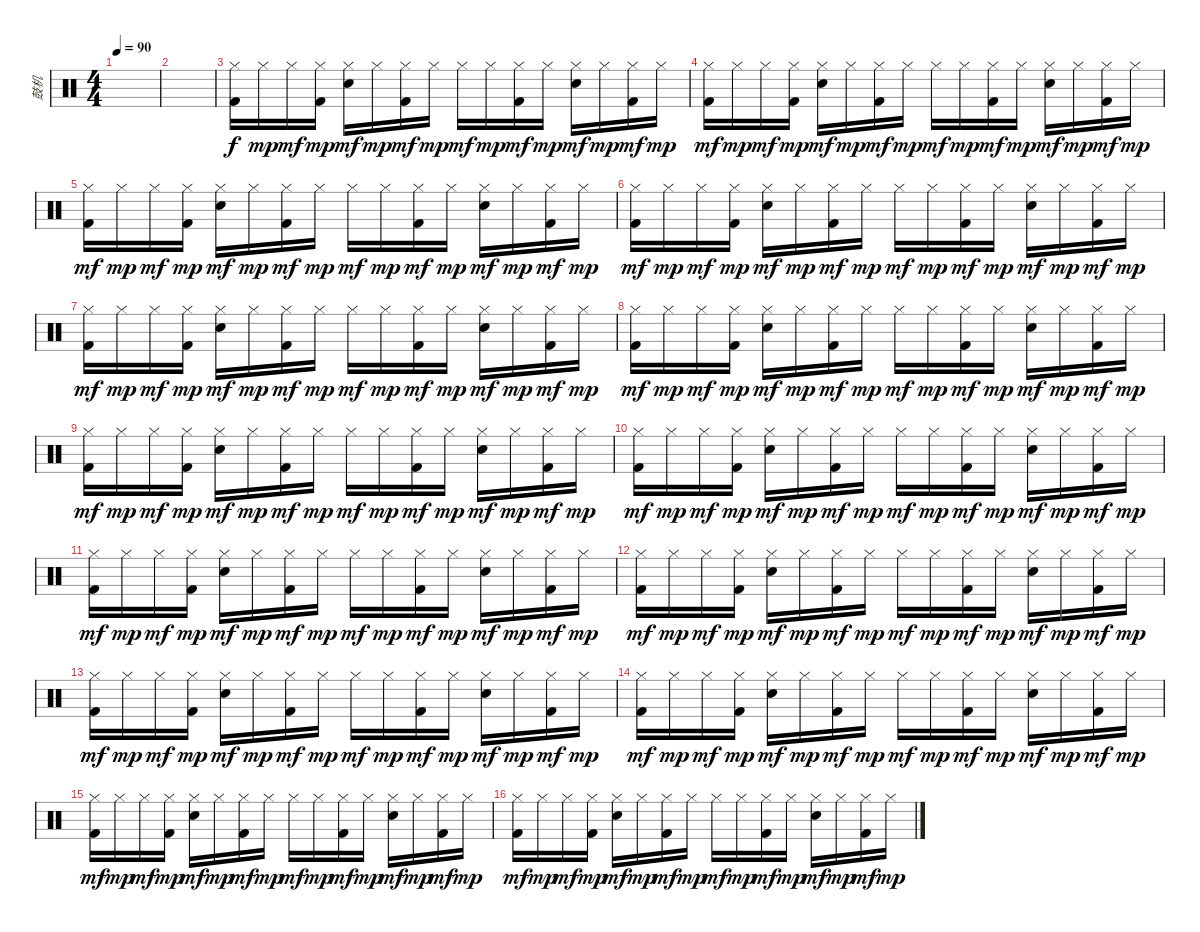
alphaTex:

\track ("鼓机" "鼓机") {instrument percussion}
\staff {score}
\articulation defaults
\ts (4 4)
\tempo 90
\clef neutral
\ks c
|
|
("Hi-Hat (closed)" "Kick (hit) 2").16 "Hi-Hat (closed)".16{dy mp} "Hi-Hat (closed)".16{dy mf} ("Hi-Hat (closed)" "Kick (hit) 2").16{dy mp} ("Hi-Hat (closed)" "Snare (hit) 2").16{dy mf} "Hi-Hat (closed)".16{dy mp} ("Hi-Hat (closed)" "Kick (hit) 2").16{dy mf} "Hi-Hat (closed)".16{dy mp} "Hi-Hat (closed)".16{dy mf} "Hi-Hat (closed)".16{dy mp} ("Hi-Hat (closed)" "Kick (hit) 2").16{dy mf} "Hi-Hat (closed)".16{dy mp} ("Hi-Hat (closed)" "Snare (hit) 2").16{dy mf} "Hi-Hat (closed)".16{dy mp} ("Hi-Hat (closed)" "Kick (hit) 2").16{dy mf} "Hi-Hat (closed)".16{dy mp} |
("Hi-Hat (closed)" "Kick (hit) 2").16{dy mf} "Hi-Hat (closed)".16{dy mp} "Hi-Hat (closed)".16{dy mf} ("Hi-Hat (closed)" "Kick (hit) 2").16{dy mp} ("Hi-Hat (closed)" "Snare (hit) 2").16{dy mf} "Hi-Hat (closed)".16{dy mp} ("Hi-Hat (closed)" "Kick (hit) 2").16{dy mf} "Hi-Hat (closed)".16{dy mp} "Hi-Hat (closed)".16{dy mf} "Hi-Hat (closed)".16{dy mp} ("Hi-Hat (closed)" "Kick (hit) 2").16{dy mf} "Hi-Hat (closed)".16{dy mp} ("Hi-Hat (closed)" "Snare (hit) 2").16{dy mf} "Hi-Hat (closed)".16{dy mp} ("Hi-Hat (closed)" "Kick (hit) 2").16{dy mf} "Hi-Hat (closed)".16{dy mp} |
("Hi-Hat (closed)" "Kick (hit) 2").16{dy mf} "Hi-Hat (closed)".16{dy mp} "Hi-Hat (closed)".16{dy mf} ("Hi-Hat (closed)" "Kick (hit) 2").16{dy mp} ("Hi-Hat (closed)" "Snare (hit) 2").16{dy mf} "Hi-Hat (closed)".16{dy mp} ("Hi-Hat (closed)" "Kick (hit) 2").16{dy mf} "Hi-Hat (closed)".16{dy mp} "Hi-Hat (closed)".16{dy mf} "Hi-Hat (closed)".16{dy mp} ("Hi-Hat (closed)" "Kick (hit) 2").16{dy mf} "Hi-Hat (closed)".16{dy mp} ("Hi-Hat (closed)" "Snare (hit) 2").16{dy mf} "Hi-Hat (closed)".16{dy mp} ("Hi-Hat (closed)" "Kick (hit) 2").16{dy mf} "Hi-Hat (closed)".16{dy mp} |
("Hi-Hat (closed)" "Kick (hit) 2").16{dy mf} "Hi-Hat (closed)".16{dy mp} "Hi-Hat (closed)".16{dy mf} ("Hi-Hat (closed)" "Kick (hit) 2").16{dy mp} ("Hi-Hat (closed)" "Snare (hit) 2").16{dy mf} "Hi-Hat (closed)".16{dy mp} ("Hi-Hat (closed)" "Kick (hit) 2").16{dy mf} "Hi-Hat (closed)".16{dy mp} "Hi-Hat (closed)".16{dy mf} "Hi-Hat (closed)".16{dy mp} ("Hi-Hat (closed)" "Kick (hit) 2").16{dy mf} "Hi-Hat (closed)".16{dy mp} ("Hi-Hat (closed)" "Snare (hit) 2").16{dy mf} "Hi-Hat (closed)".16{dy mp} ("Hi-Hat (closed)" "Kick (hit) 2").16{dy mf} "Hi-Hat (closed)".16{dy mp} |
("Hi-Hat (closed)" "Kick (hit) 2").16{dy mf} "Hi-Hat (closed)".16{dy mp} "Hi-Hat (closed)".16{dy mf} ("Hi-Hat (closed)" "Kick (hit) 2").16{dy mp} ("Hi-Hat (closed)" "Snare (hit) 2").16{dy mf} "Hi-Hat (closed)".16{dy mp} ("Hi-Hat (closed)" "Kick (hit) 2").16{dy mf} "Hi-Hat (closed)".16{dy mp} "Hi-Hat (closed)".16{dy mf} "Hi-Hat (closed)".16{dy mp} ("Hi-Hat (closed)" "Kick (hit) 2").16{dy mf} "Hi-Hat (closed)".16{dy mp} ("Hi-Hat (closed)" "Snare (hit) 2").16{dy mf} "Hi-Hat (closed)".16{dy mp} ("Hi-Hat (closed)" "Kick (hit) 2").16{dy mf} "Hi-Hat (closed)".16{dy mp} |
("Hi-Hat (closed)" "Kick (hit) 2").16{dy mf} "Hi-Hat (closed)".16{dy mp} "Hi-Hat (closed)".16{dy mf} ("Hi-Hat (closed)" "Kick (hit) 2").16{dy mp} ("Hi-Hat (closed)" "Snare (hit) 2").16{dy mf} "Hi-Hat (closed)".16{dy mp} ("Hi-Hat (closed)" "Kick (hit) 2").16{dy mf} "Hi-Hat (closed)".16{dy mp} "Hi-Hat (closed)".16{dy mf} "Hi-Hat (closed)".16{dy mp} ("Hi-Hat (closed)" "Kick (hit) 2").16{dy mf} "Hi-Hat (closed)".16{dy mp} ("Hi-Hat (closed)" "Snare (hit) 2").16{dy mf} "Hi-Hat (closed)".16{dy mp} ("Hi-Hat (closed)" "Kick (hit) 2").16{dy mf} "Hi-Hat (closed)".16{dy mp} |
("Hi-Hat (closed)" "Kick (hit) 2").16{dy mf} "Hi-Hat (closed)".16{dy mp} "Hi-Hat (closed)".16{dy mf} ("Hi-Hat (closed)" "Kick (hit) 2").16{dy mp} ("Hi-Hat (closed)" "Snare (hit) 2").16{dy mf} "Hi-Hat (closed)".16{dy mp} ("Hi-Hat (closed)" "Kick (hit) 2").16{dy mf} "Hi-Hat (closed)".16{dy mp} "Hi-Hat (closed)".16{dy mf} "Hi-Hat (closed)".16{dy mp} ("Hi-Hat (closed)" "Kick (hit) 2").16{dy mf} "Hi-Hat (closed)".16{dy mp} ("Hi-Hat (closed)" "Snare (hit) 2").16{dy mf} "Hi-Hat (closed)".16{dy mp} ("Hi-Hat (closed)" "Kick (hit) 2").16{dy mf} "Hi-Hat (closed)".16{dy mp} |
("Hi-Hat (closed)" "Kick (hit) 2").16{dy mf} "Hi-Hat (closed)".16{dy mp} "Hi-Hat (closed)".16{dy mf} ("Hi-Hat (closed)" "Kick (hit) 2").16{dy mp} ("Hi-Hat (closed)" "Snare (hit) 2").16{dy mf} "Hi-Hat (closed)".16{dy mp} ("Hi-Hat (closed)" "Kick (hit) 2").16{dy mf} "Hi-Hat (closed)".16{dy mp} "Hi-Hat (closed)".16{dy mf} "Hi-Hat (closed)".16{dy mp} ("Hi-Hat (closed)" "Kick (hit) 2").16{dy mf} "Hi-Hat (closed)".16{dy mp} ("Hi-Hat (closed)" "Snare (hit) 2").16{dy mf} "Hi-Hat (closed)".16{dy mp} ("Hi-Hat (closed)" "Kick (hit) 2").16{dy mf} "Hi-Hat (closed)".16{dy mp} |
("Hi-Hat (closed)" "Kick (hit) 2").16{dy mf} "Hi-Hat (closed)".16{dy mp} "Hi-Hat (closed)".16{dy mf} ("Hi-Hat (closed)" "Kick (hit) 2").16{dy mp} ("Hi-Hat (closed)" "Snare (hit) 2").16{dy mf} "Hi-Hat (closed)".16{dy mp} ("Hi-Hat (closed)" "Kick (hit) 2").16{dy mf} "Hi-Hat (closed)".16{dy mp} "Hi-Hat (closed)".16{dy mf} "Hi-Hat (closed)".16{dy mp} ("Hi-Hat (closed)" "Kick (hit) 2").16{dy mf} "Hi-Hat (closed)".16{dy mp} ("Hi-Hat (closed)" "Snare (hit) 2").16{dy mf} "Hi-Hat (closed)".16{dy mp} ("Hi-Hat (closed)" "Kick (hit) 2").16{dy mf} "Hi-Hat (closed)".16{dy mp} |
("Hi-Hat (closed)" "Kick (hit) 2").16{dy mf} "Hi-Hat (closed)".16{dy mp} "Hi-Hat (closed)".16{dy mf} ("Hi-Hat (closed)" "Kick (hit) 2").16{dy mp} ("Hi-Hat (closed)" "Snare (hit) 2").16{dy mf} "Hi-Hat (closed)".16{dy mp} ("Hi-Hat (closed)" "Kick (hit) 2").16{dy mf} "Hi-Hat (closed)".16{dy mp} "Hi-Hat (closed)".16{dy mf} "Hi-Hat (closed)".16{dy mp} ("Hi-Hat (closed)" "Kick (hit) 2").16{dy mf} "Hi-Hat (closed)".16{dy mp} ("Hi-Hat (closed)" "Snare (hit) 2").16{dy mf} "Hi-Hat (closed)".16{dy mp} ("Hi-Hat (closed)" "Kick (hit) 2").16{dy mf} "Hi-Hat (closed)".16{dy mp} |
("Hi-Hat (closed)" "Kick (hit) 2").16{dy mf} "Hi-Hat (closed)".16{dy mp} "Hi-Hat (closed)".16{dy mf} ("Hi-Hat (closed)" "Kick (hit) 2").16{dy mp} ("Hi-Hat (closed)" "Snare (hit) 2").16{dy mf} "Hi-Hat (closed)".16{dy mp} ("Hi-Hat (closed)" "Kick (hit) 2").16{dy mf} "Hi-Hat (closed)".16{dy mp} "Hi-Hat (closed)".16{dy mf} "Hi-Hat (closed)".16{dy mp} ("Hi-Hat (closed)" "Kick (hit) 2").16{dy mf} "Hi-Hat (closed)".16{dy mp} ("Hi-Hat (closed)" "Snare (hit) 2").16{dy mf} "Hi-Hat (closed)".16{dy mp} ("Hi-Hat (closed)" "Kick (hit) 2").16{dy mf} "Hi-Hat (closed)".16{dy mp} |
("Hi-Hat (closed)" "Kick (hit) 2").16{dy mf} "Hi-Hat (closed)".16{dy mp} "Hi-Hat (closed)".16{dy mf} ("Hi-Hat (closed)" "Kick (hit) 2").16{dy mp} ("Hi-Hat (closed)" "Snare (hit) 2").16{dy mf} "Hi-Hat (closed)".16{dy mp} ("Hi-Hat (closed)" "Kick (hit) 2").16{dy mf} "Hi-Hat (closed)".16{dy mp} "Hi-Hat (closed)".16{dy mf} "Hi-Hat (closed)".16{dy mp} ("Hi-Hat (closed)" "Kick (hit) 2").16{dy mf} "Hi-Hat (closed)".16{dy mp} ("Hi-Hat (closed)" "Snare (hit) 2").16{dy mf} "Hi-Hat (closed)".16{dy mp} ("Hi-Hat (closed)" "Kick (hit) 2").16{dy mf} "Hi-Hat (closed)".16{dy mp} |
("Hi-Hat (closed)" "Kick (hit) 2").16{dy mf} "Hi-Hat (closed)".16{dy mp} "Hi-Hat (closed)".16{dy mf} ("Hi-Hat (closed)" "Kick (hit) 2").16{dy mp} ("Hi-Hat (closed)" "Snare (hit) 2").16{dy mf} "Hi-Hat (closed)".16{dy mp} ("Hi-Hat (closed)" "Kick (hit) 2").16{dy mf} "Hi-Hat (closed)".16{dy mp} "Hi-Hat (closed)".16{dy mf} "Hi-Hat (closed)".16{dy mp} ("Hi-Hat (closed)" "Kick (hit) 2").16{dy mf} "Hi-Hat (closed)".16{dy mp} ("Hi-Hat (closed)" "Snare (hit) 2").16{dy mf} "Hi-Hat (closed)".16{dy mp} ("Hi-Hat (closed)" "Kick (hit) 2").16{dy mf} "Hi-Hat (closed)".16{dy mp} |
("Hi-Hat (closed)" "Kick (hit) 2").16{dy mf} "Hi-Hat (closed)".16{dy mp} "Hi-Hat (closed)".16{dy mf} ("Hi-Hat (closed)" "Kick (hit) 2").16{dy mp} ("Hi-Hat (closed)" "Snare (hit) 2").16{dy mf} "Hi-Hat (closed)".16{dy mp} ("Hi-Hat (closed)" "Kick (hit) 2").16{dy mf} "Hi-Hat (closed)".16{dy mp} "Hi-Hat (closed)".16{dy mf} "Hi-Hat (closed)".16{dy mp} ("Hi-Hat (closed)" "Kick (hit) 2").16{dy mf} "Hi-Hat (closed)".16{dy mp} ("Hi-Hat (closed)" "Snare (hit) 2").16{dy mf} "Hi-Hat (closed)".16{dy mp} ("Hi-Hat (closed)" "Kick (hit) 2").16{dy mf} "Hi-Hat (closed)".16{dy mp}
